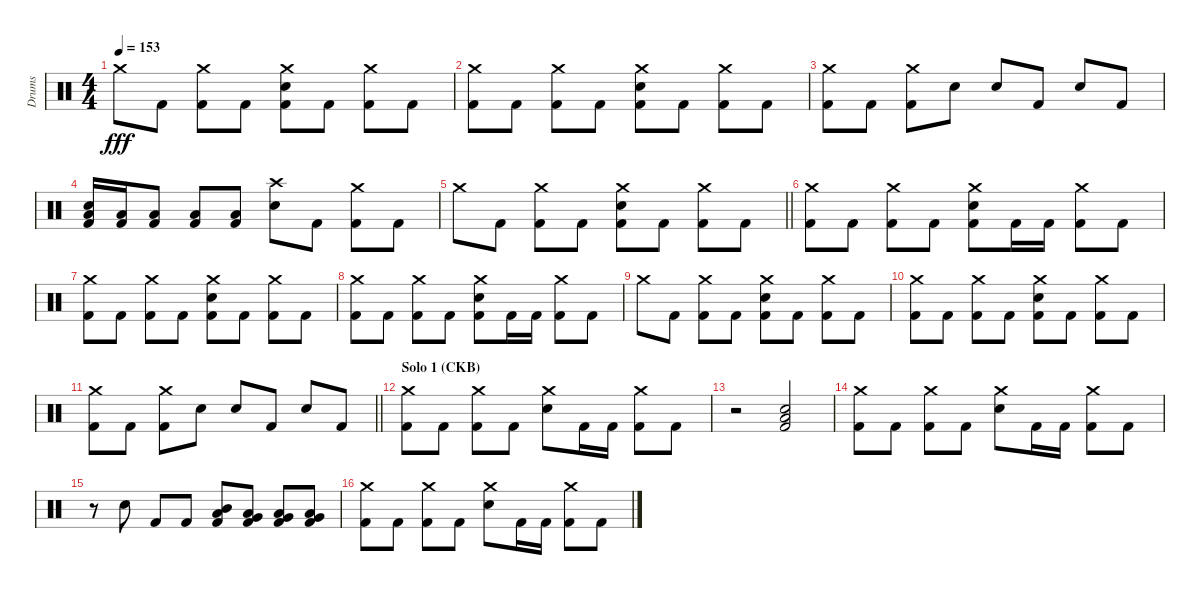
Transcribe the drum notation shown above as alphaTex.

\track ("Drums" "Drums") {instrument percussion}
\staff {score}
\articulation defaults
\ts (4 4)
\tempo 153
\clef neutral
\ks c "Crash medium (hit)".8{dy fff} "Kick (hit) 2".8
("Crash medium (hit)" "Kick (hit) 2").8 "Kick (hit) 2".8 ("Crash medium (hit)" "Snare (hit) 2" "Kick (hit) 2").8 "Kick (hit) 2".8 ("Crash medium (hit)" "Kick (hit) 2").8 "Kick (hit) 2".8 |
("Crash medium (hit)" "Kick (hit) 2").8 "Kick (hit) 2".8 ("Crash medium (hit)" "Kick (hit) 2").8 "Kick (hit) 2".8 ("Crash medium (hit)" "Snare (hit) 2" "Kick (hit) 2").8 "Kick (hit) 2".8 ("Crash medium (hit)" "Kick (hit) 2").8 "Kick (hit) 2".8 |
("Crash medium (hit)" "Kick (hit) 2").8 "Kick (hit) 2".8 ("Crash medium (hit)" "Kick (hit) 2").8 "Snare (hit) 2".8 "Snare (hit) 2".8 "Kick (hit) 2".8 "Snare (hit) 2".8 "Kick (hit) 2".8 |
("Low Floor Tom (hit)" "Snare (hit) 2" "Kick (hit) 2").16 ("Low Floor Tom (hit)" "Kick (hit) 2").16 ("Low Floor Tom (hit)" "Kick (hit) 2").8 ("Low Floor Tom (hit)" "Kick (hit) 2").8 ("Low Floor Tom (hit)" "Kick (hit) 2").8 ("Crash high (hit)" "Snare (hit) 2").8 "Kick (hit) 2".8 ("Crash medium (hit)" "Kick (hit) 2").8 "Kick (hit) 2".8 |
\barLineRight lightlight "Crash medium (hit)".8 "Kick (hit) 2".8
("Crash medium (hit)" "Kick (hit) 2").8 "Kick (hit) 2".8 ("Crash medium (hit)" "Snare (hit) 2" "Kick (hit) 2").8 "Kick (hit) 2".8 ("Crash medium (hit)" "Kick (hit) 2").8 "Kick (hit) 2".8 |
("Crash medium (hit)" "Kick (hit) 2").8 "Kick (hit) 2".8 ("Crash medium (hit)" "Kick (hit) 2").8 "Kick (hit) 2".8 ("Crash medium (hit)" "Snare (hit) 2" "Kick (hit) 2").8 "Kick (hit) 2".16 "Kick (hit) 2".16 ("Crash medium (hit)" "Kick (hit) 2").8 "Kick (hit) 2".8 |
("Crash medium (hit)" "Kick (hit) 2").8 "Kick (hit) 2".8 ("Crash medium (hit)" "Kick (hit) 2").8 "Kick (hit) 2".8 ("Crash medium (hit)" "Snare (hit) 2" "Kick (hit) 2").8 "Kick (hit) 2".8 ("Crash medium (hit)" "Kick (hit) 2").8 "Kick (hit) 2".8 |
("Crash medium (hit)" "Kick (hit) 2").8 "Kick (hit) 2".8 ("Crash medium (hit)" "Kick (hit) 2").8 "Kick (hit) 2".8 ("Crash medium (hit)" "Snare (hit) 2" "Kick (hit) 2").8 "Kick (hit) 2".16 "Kick (hit) 2".16 ("Crash medium (hit)" "Kick (hit) 2").8 "Kick (hit) 2".8 |
"Crash medium (hit)".8 "Kick (hit) 2".8 ("Crash medium (hit)" "Kick (hit) 2").8 "Kick (hit) 2".8 ("Crash medium (hit)" "Snare (hit) 2" "Kick (hit) 2").8 "Kick (hit) 2".8 ("Crash medium (hit)" "Kick (hit) 2").8 "Kick (hit) 2".8 |
("Crash medium (hit)" "Kick (hit) 2").8 "Kick (hit) 2".8 ("Crash medium (hit)" "Kick (hit) 2").8 "Kick (hit) 2".8 ("Crash medium (hit)" "Snare (hit) 2" "Kick (hit) 2").8 "Kick (hit) 2".8 ("Crash medium (hit)" "Kick (hit) 2").8 "Kick (hit) 2".8 |
\barLineRight lightlight
("Crash medium (hit)" "Kick (hit) 2").8 "Kick (hit) 2".8 ("Crash medium (hit)" "Kick (hit) 2").8 "Snare (hit) 2".8 "Snare (hit) 2".8 "Kick (hit) 2".8 "Snare (hit) 2".8 "Kick (hit) 2".8 |
\section ("" "Solo 1 (CKB)")
("Crash medium (hit)" "Kick (hit) 2").8 "Kick (hit) 2".8 ("Crash medium (hit)" "Kick (hit) 2").8 "Kick (hit) 2".8 ("Crash medium (hit)" "Snare (hit) 2").8 "Kick (hit) 2".16 "Kick (hit) 2".16 ("Crash medium (hit)" "Kick (hit) 2").8 "Kick (hit) 2".8 |
r.2 ("Low Floor Tom (hit)" "Kick (hit) 2" "Snare (hit) 2").2 |
("Crash medium (hit)" "Kick (hit) 2").8 "Kick (hit) 2".8 ("Crash medium (hit)" "Kick (hit) 2").8 "Kick (hit) 2".8 ("Crash medium (hit)" "Snare (hit) 2").8 "Kick (hit) 2".16 "Kick (hit) 2".16 ("Crash medium (hit)" "Kick (hit) 2").8 "Kick (hit) 2".8 |
r.8 "Snare (hit) 2".8 "Kick (hit) 2".8 "Kick (hit) 2".8 ("Mid Tom (hit)" "Low Tom (hit)" "Kick (hit) 2").8 ("Low Tom (hit)" "Kick (hit) 2" "Very Low Tom (hit)").8 ("Low Tom (hit)" "Very Low Tom (hit)" "Kick (hit) 2").8 ("Very Low Tom (hit)" "Kick (hit) 2" "Low Floor Tom (hit)").8 |
("Crash medium (hit)" "Kick (hit) 2").8 "Kick (hit) 2".8 ("Crash medium (hit)" "Kick (hit) 2").8 "Kick (hit) 2".8 ("Crash medium (hit)" "Snare (hit) 2").8 "Kick (hit) 2".16 "Kick (hit) 2".16 ("Crash medium (hit)" "Kick (hit) 2").8 "Kick (hit) 2".8
